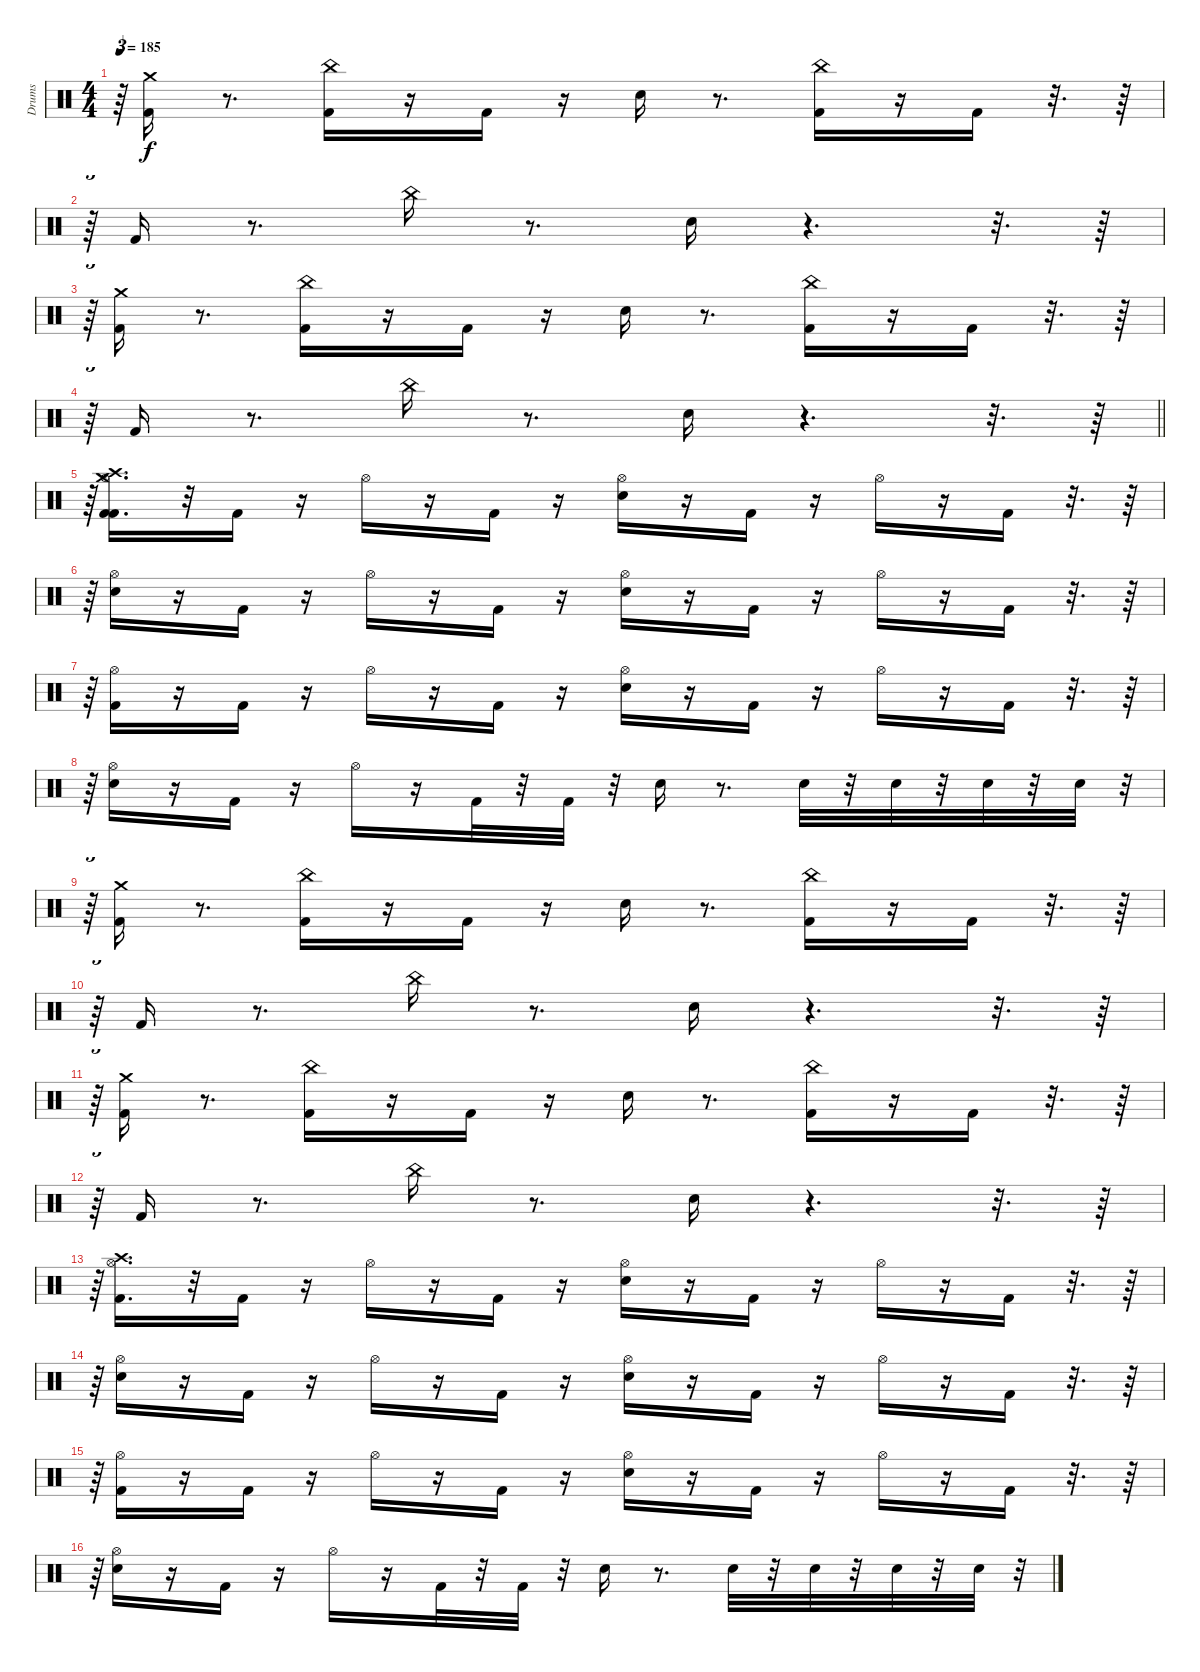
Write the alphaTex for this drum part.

\track ("Drums" "Drums") {instrument percussion}
\staff {score}
\articulation defaults
\ts (4 4)
\tempo 185
\clef neutral
\ks c
r.64{tu (3 2) dy f} ("Kick (hit) 2" "Crash medium (hit)").16 r.8{d} ("Kick (hit) 2" "China (hit)").16 r.16 "Kick (hit) 2".16 r.16 "Electric Snare (hit)".16 r.8{d} ("China (hit)" "Kick (hit) 2").16 r.16 "Kick (hit) 2".16 r.32{d} r.64 |
r.64{tu (3 2)} "Kick (hit) 2".16 r.8{d} "China (hit)".16 r.8{d} "Electric Snare (hit)".16 r.4{d} r.32{d} r.64 |
r.64{tu (3 2)} ("Crash medium (hit)" "Kick (hit) 2").16 r.8{d} ("China (hit)" "Kick (hit) 2").16 r.16 "Kick (hit) 2".16 r.16 "Electric Snare (hit)".16 r.8{d} ("China (hit)" "Kick (hit) 2").16 r.16 "Kick (hit) 2".16 r.32{d} r.64 |
\barLineRight lightlight
r.64{tu (3 2)} "Kick (hit) 2".16 r.8{d} "China (hit)".16 r.8{d} "Electric Snare (hit)".16 r.4{d} r.32{d} r.64 |
r.64{tu (3 2)} ("Kick (hit) 2" "Crash medium (hit)" "Crash high (hit)" "Kick (hit) 2" "Hi-Hat (open)").16{d} r.32 "Kick (hit) 2".16 r.16 "Hi-Hat (open)".16 r.16 "Kick (hit) 2".16 r.16 ("Hi-Hat (open)" "Electric Snare (hit)").16 r.16 "Kick (hit) 2".16 r.16 "Hi-Hat (open)".16 r.16 "Kick (hit) 2".16 r.32{d} r.64 |
r.64{tu (3 2)} ("Electric Snare (hit)" "Hi-Hat (open)").16 r.16 "Kick (hit) 2".16 r.16 "Hi-Hat (open)".16 r.16 "Kick (hit) 2".16 r.16 ("Electric Snare (hit)" "Hi-Hat (open)").16 r.16 "Kick (hit) 2".16 r.16 "Hi-Hat (open)".16 r.16 "Kick (hit) 2".16 r.32{d} r.64 |
r.64{tu (3 2)} ("Hi-Hat (open)" "Kick (hit) 2").16 r.16 "Kick (hit) 2".16 r.16 "Hi-Hat (open)".16 r.16 "Kick (hit) 2".16 r.16 ("Hi-Hat (open)" "Electric Snare (hit)").16 r.16 "Kick (hit) 2".16 r.16 "Hi-Hat (open)".16 r.16 "Kick (hit) 2".16 r.32{d} r.64 |
r.64{tu (3 2)} ("Electric Snare (hit)" "Hi-Hat (open)").16 r.16 "Kick (hit) 2".16 r.16 "Hi-Hat (open)".16 r.16 "Kick (hit) 2".32 r.32 "Kick (hit) 2".32 r.32 "Electric Snare (hit)".16 r.8{d} "Electric Snare (hit)".32 r.32 "Electric Snare (hit)".32 r.32 "Electric Snare (hit)".32 r.32 "Electric Snare (hit)".32 r.32{tu (3 2)} |
r.64{tu (3 2)} ("Kick (hit) 2" "Crash medium (hit)").16 r.8{d} ("China (hit)" "Kick (hit) 2").16 r.16 "Kick (hit) 2".16 r.16 "Electric Snare (hit)".16 r.8{d} ("Kick (hit) 2" "China (hit)").16 r.16 "Kick (hit) 2".16 r.32{d} r.64 |
r.64{tu (3 2)} "Kick (hit) 2".16 r.8{d} "China (hit)".16 r.8{d} "Electric Snare (hit)".16 r.4{d} r.32{d} r.64 |
r.64{tu (3 2)} ("Crash medium (hit)" "Kick (hit) 2").16 r.8{d} ("China (hit)" "Kick (hit) 2").16 r.16 "Kick (hit) 2".16 r.16 "Electric Snare (hit)".16 r.8{d} ("China (hit)" "Kick (hit) 2").16 r.16 "Kick (hit) 2".16 r.32{d} r.64 |
r.64{tu (3 2)} "Kick (hit) 2".16 r.8{d} "China (hit)".16 r.8{d} "Electric Snare (hit)".16 r.4{d} r.32{d} r.64 |
r.64{tu (3 2)} ("Hi-Hat (open)" "Kick (hit) 2" "Crash high (hit)").16{d} r.32 "Kick (hit) 2".16 r.16 "Hi-Hat (open)".16 r.16 "Kick (hit) 2".16 r.16 ("Hi-Hat (open)" "Electric Snare (hit)").16 r.16 "Kick (hit) 2".16 r.16 "Hi-Hat (open)".16 r.16 "Kick (hit) 2".16 r.32{d} r.64 |
r.64{tu (3 2)} ("Hi-Hat (open)" "Electric Snare (hit)").16 r.16 "Kick (hit) 2".16 r.16 "Hi-Hat (open)".16 r.16 "Kick (hit) 2".16 r.16 ("Hi-Hat (open)" "Electric Snare (hit)").16 r.16 "Kick (hit) 2".16 r.16 "Hi-Hat (open)".16 r.16 "Kick (hit) 2".16 r.32{d} r.64 |
r.64{tu (3 2)} ("Hi-Hat (open)" "Kick (hit) 2").16 r.16 "Kick (hit) 2".16 r.16 "Hi-Hat (open)".16 r.16 "Kick (hit) 2".16 r.16 ("Hi-Hat (open)" "Electric Snare (hit)").16 r.16 "Kick (hit) 2".16 r.16 "Hi-Hat (open)".16 r.16 "Kick (hit) 2".16 r.32{d} r.64 |
r.64{tu (3 2)} ("Electric Snare (hit)" "Hi-Hat (open)").16 r.16 "Kick (hit) 2".16 r.16 "Hi-Hat (open)".16 r.16 "Kick (hit) 2".32 r.32 "Kick (hit) 2".32 r.32 "Electric Snare (hit)".16 r.8{d} "Electric Snare (hit)".32 r.32 "Electric Snare (hit)".32 r.32 "Electric Snare (hit)".32 r.32 "Electric Snare (hit)".32 r.32{tu (3 2)}
